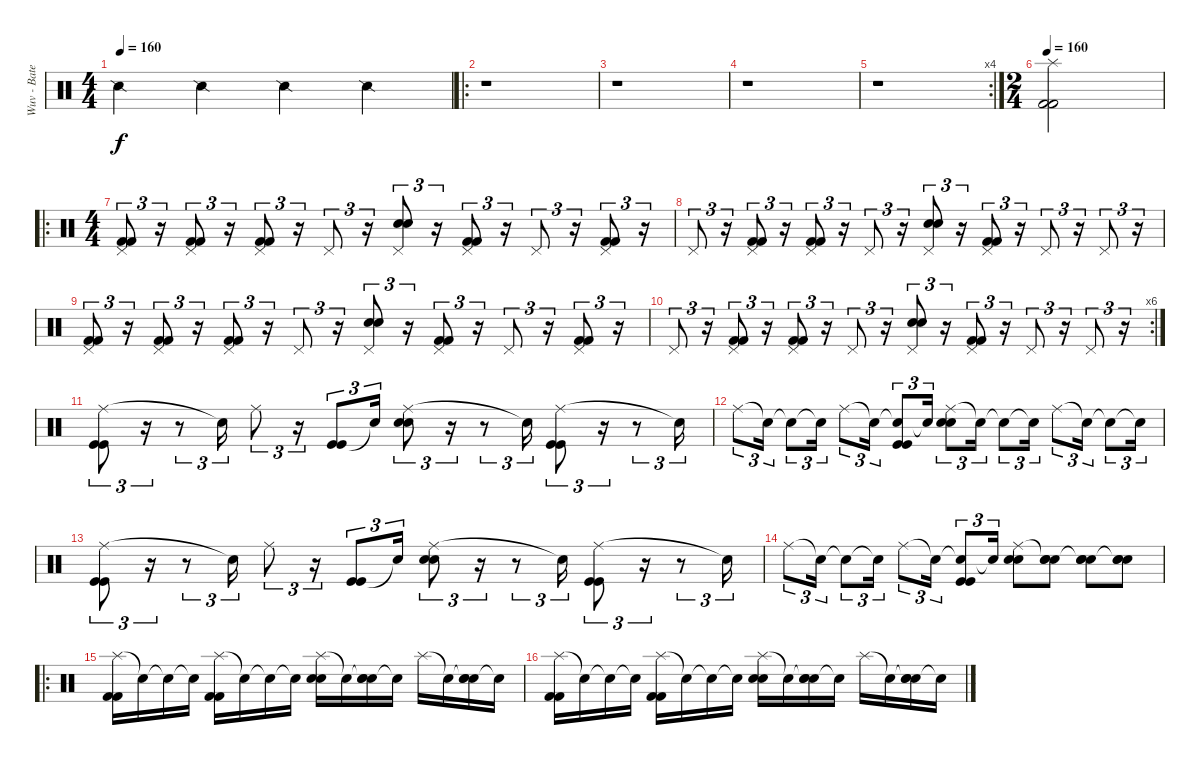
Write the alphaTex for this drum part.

\track ("Wuv - Bateria" "Wuv - Bate") {instrument percussion}
\staff {score}
\articulation defaults
\ts (4 4)
\tempo 160
\tempo 110
\tempo 160
\clef neutral
\ks c "Snare (side stick) 2".4{dy f} "Snare (side stick) 2".4 "Snare (side stick) 2".4 "Snare (side stick) 2".4
|
\ro
r.1 |
r.1 |
r.1 |
\rc 4
r.1 |
\ts (2 4)
\tempo 155
\tempo 160
("Splash (hit)" "Kick (hit) 2" "Kick (hit) 2").2 |
\ro
\ts (4 4)
("Pedal Hi-Hat (hit)" "Kick (hit) 2" "Kick (hit) 2").8{tu (3 2)} r.16{tu (3 2)} ("Pedal Hi-Hat (hit)" "Kick (hit) 2" "Kick (hit) 2").8{tu (3 2)} r.16{tu (3 2)} ("Pedal Hi-Hat (hit)" "Kick (hit) 2" "Kick (hit) 2").8{tu (3 2)} r.16{tu (3 2)} "Pedal Hi-Hat (hit)".8{tu (3 2)} r.16{tu (3 2)} ("Pedal Hi-Hat (hit)" "Electric Snare (hit)" "Electric Snare (hit)").8{tu (3 2)} r.16{tu (3 2)} ("Pedal Hi-Hat (hit)" "Kick (hit) 2" "Kick (hit) 2").8{tu (3 2)} r.16{tu (3 2)} "Pedal Hi-Hat (hit)".8{tu (3 2)} r.16{tu (3 2)} ("Pedal Hi-Hat (hit)" "Kick (hit) 2" "Kick (hit) 2").8{tu (3 2)} r.16{tu (3 2)} |
"Pedal Hi-Hat (hit)".8{tu (3 2)} r.16{tu (3 2)} ("Pedal Hi-Hat (hit)" "Kick (hit) 2" "Kick (hit) 2").8{tu (3 2)} r.16{tu (3 2)} ("Pedal Hi-Hat (hit)" "Kick (hit) 2" "Kick (hit) 2").8{tu (3 2)} r.16{tu (3 2)} "Pedal Hi-Hat (hit)".8{tu (3 2)} r.16{tu (3 2)} ("Pedal Hi-Hat (hit)" "Electric Snare (hit)" "Electric Snare (hit)").8{tu (3 2)} r.16{tu (3 2)} ("Pedal Hi-Hat (hit)" "Kick (hit) 2" "Kick (hit) 2").8{tu (3 2)} r.16{tu (3 2)} "Pedal Hi-Hat (hit)".8{tu (3 2)} r.16{tu (3 2)} "Pedal Hi-Hat (hit)".8{tu (3 2)} r.16{tu (3 2)} |
("Pedal Hi-Hat (hit)" "Kick (hit) 2" "Kick (hit) 2").8{tu (3 2)} r.16{tu (3 2)} ("Pedal Hi-Hat (hit)" "Kick (hit) 2" "Kick (hit) 2").8{tu (3 2)} r.16{tu (3 2)} ("Pedal Hi-Hat (hit)" "Kick (hit) 2" "Kick (hit) 2").8{tu (3 2)} r.16{tu (3 2)} "Pedal Hi-Hat (hit)".8{tu (3 2)} r.16{tu (3 2)} ("Pedal Hi-Hat (hit)" "Electric Snare (hit)" "Electric Snare (hit)").8{tu (3 2)} r.16{tu (3 2)} ("Pedal Hi-Hat (hit)" "Kick (hit) 2" "Kick (hit) 2").8{tu (3 2)} r.16{tu (3 2)} "Pedal Hi-Hat (hit)".8{tu (3 2)} r.16{tu (3 2)} ("Pedal Hi-Hat (hit)" "Kick (hit) 2" "Kick (hit) 2").8{tu (3 2)} r.16{tu (3 2)} |
\rc 6 "Pedal Hi-Hat (hit)".8{tu (3 2)}
r.16{tu (3 2)} ("Pedal Hi-Hat (hit)" "Kick (hit) 2" "Kick (hit) 2").8{tu (3 2)} r.16{tu (3 2)} ("Pedal Hi-Hat (hit)" "Kick (hit) 2" "Kick (hit) 2").8{tu (3 2)} r.16{tu (3 2)} "Pedal Hi-Hat (hit)".8{tu (3 2)} r.16{tu (3 2)} ("Pedal Hi-Hat (hit)" "Electric Snare (hit)" "Electric Snare (hit)").8{tu (3 2)} r.16{tu (3 2)} ("Pedal Hi-Hat (hit)" "Kick (hit) 2" "Kick (hit) 2").8{tu (3 2)} r.16{tu (3 2)} "Pedal Hi-Hat (hit)".8{tu (3 2)} r.16{tu (3 2)} "Pedal Hi-Hat (hit)".8{tu (3 2)} r.16{tu (3 2)} |
("Ride (middle)" "Kick (hit)" "Kick (hit)").8{tu (3 2)} r.16{tu (3 2)} r.8{tu (3 2)} "Snare (hit)"{t}.16{tu (3 2)} "Ride (middle)".8{tu (3 2)} r.16{tu (3 2)} ("Kick (hit)" "Kick (hit)").8{tu (3 2)} "Snare (hit)"{t}.16{tu (3 2)} ("Ride (middle)" "Snare (hit) 2" "Snare (hit) 2").8{tu (3 2)} r.16{tu (3 2)} r.8{tu (3 2)} "Snare (hit)"{t}.16{tu (3 2)} ("Ride (middle)" "Kick (hit)" "Kick (hit)").8{tu (3 2)} r.16{tu (3 2)} r.8{tu (3 2)} "Snare (hit)"{t}.16{tu (3 2)} |
"Ride (middle)".8{tu (3 2)} "Snare (hit)"{t}.16{tu (3 2)} "Snare (hit)"{t}.8{tu (3 2)} "Snare (hit)"{t}.16{tu (3 2)} "Ride (middle)".8{tu (3 2)} "Snare (hit)"{t}.16{tu (3 2)} ("Snare (hit)"{t} "Kick (hit)" "Kick (hit)").8{tu (3 2)} "Snare (hit)"{t}.16{tu (3 2)} ("Ride (middle)" "Snare (hit) 2" "Snare (hit) 2").8{tu (3 2)} "Snare (hit)"{t}.16{tu (3 2)} "Snare (hit)"{t}.8{tu (3 2)} "Snare (hit)"{t}.16{tu (3 2)} "Ride (middle)".8{tu (3 2)} "Snare (hit)"{t}.16{tu (3 2)} "Snare (hit)"{t}.8{tu (3 2)} "Snare (hit)"{t}.16{tu (3 2)} |
("Ride (middle)" "Kick (hit)" "Kick (hit)").8{tu (3 2)} r.16{tu (3 2)} r.8{tu (3 2)} "Snare (hit)"{t}.16{tu (3 2)} "Ride (middle)".8{tu (3 2)} r.16{tu (3 2)} ("Kick (hit)" "Kick (hit)").8{tu (3 2)} "Snare (hit)"{t}.16{tu (3 2)} ("Ride (middle)" "Snare (hit) 2" "Snare (hit) 2").8{tu (3 2)} r.16{tu (3 2)} r.8{tu (3 2)} "Snare (hit)"{t}.16{tu (3 2)} ("Ride (middle)" "Kick (hit)" "Kick (hit)").8{tu (3 2)} r.16{tu (3 2)} r.8{tu (3 2)} "Snare (hit)"{t}.16{tu (3 2)} |
"Ride (middle)".8{tu (3 2)} "Snare (hit)"{t}.16{tu (3 2)} "Snare (hit)"{t}.8{tu (3 2)} "Snare (hit)"{t}.16{tu (3 2)} "Ride (middle)".8{tu (3 2)} "Snare (hit)"{t}.16{tu (3 2)} ("Snare (hit)"{t} "Kick (hit)" "Kick (hit)").8{tu (3 2)} "Snare (hit)"{t}.16{tu (3 2)} ("Ride (middle)" "Electric Snare (hit)" "Electric Snare (hit)").8 ("Snare (hit)"{t} "Electric Snare (hit)" "Electric Snare (hit)").8 ("Snare (hit)"{t} "Electric Snare (hit)" "Electric Snare (hit)").8 ("Snare (hit)"{t} "Electric Snare (hit)" "Electric Snare (hit)").8 |
\ro
("Splash (hit)" "Kick (hit) 2" "Kick (hit) 2").16 "Snare (hit)"{t}.16 "Snare (hit)"{t}.16 "Snare (hit)"{t}.16 ("Splash (hit)" "Kick (hit) 2" "Kick (hit) 2").16 "Snare (hit)"{t}.16 "Snare (hit)"{t}.16 "Snare (hit)"{t}.16 ("Splash (hit)" "Electric Snare (hit)" "Electric Snare (hit)").16 "Snare (hit)"{t}.16 ("Snare (hit)"{t} "Electric Snare (hit)" "Electric Snare (hit)").16 "Snare (hit)"{t}.16 "Splash (hit)".16 "Snare (hit)"{t}.16 ("Snare (hit)"{t} "Electric Snare (hit)" "Electric Snare (hit)").16 "Snare (hit)"{t}.16 |
("Splash (hit)" "Kick (hit) 2" "Kick (hit) 2").16 "Snare (hit)"{t}.16 "Snare (hit)"{t}.16 "Snare (hit)"{t}.16 ("Splash (hit)" "Kick (hit) 2" "Kick (hit) 2").16 "Snare (hit)"{t}.16 "Snare (hit)"{t}.16 "Snare (hit)"{t}.16 ("Splash (hit)" "Electric Snare (hit)" "Electric Snare (hit)").16 "Snare (hit)"{t}.16 ("Snare (hit)"{t} "Electric Snare (hit)" "Electric Snare (hit)").16 "Snare (hit)"{t}.16 "Splash (hit)".16 "Snare (hit)"{t}.16 ("Snare (hit)"{t} "Electric Snare (hit)" "Electric Snare (hit)").16 "Snare (hit)"{t}.16
